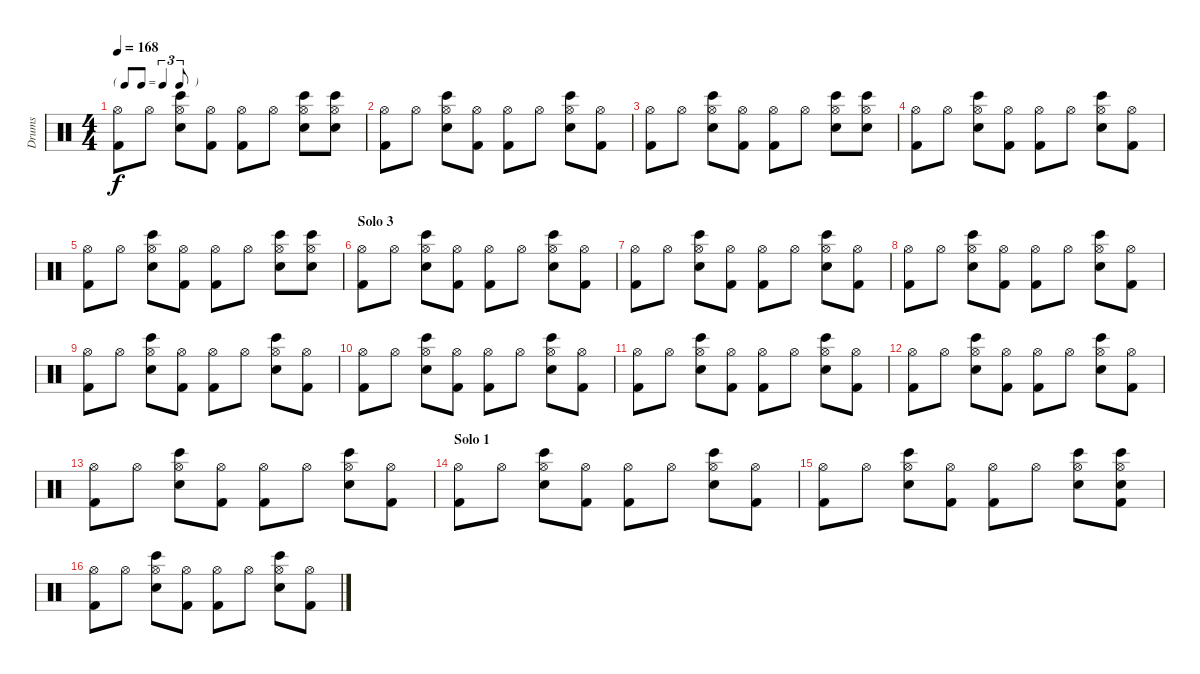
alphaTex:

\track ("Drums" "Drums") {instrument percussion}
\staff {score}
\articulation defaults
\ts (4 4)
\tf triplet8th
\tempo 168
\clef neutral
\ks c
("Hi-Hat (open)" "Kick (hit) 2").8{dy f} "Hi-Hat (open)".8 ("Hi-Hat (open)" "Bongo High (hit)" "Snare (hit) 2").8 ("Hi-Hat (open)" "Kick (hit) 2").8 ("Hi-Hat (open)" "Kick (hit) 2").8 "Hi-Hat (open)".8 ("Hi-Hat (open)" "Bongo High (hit)" "Snare (hit) 2").8 ("Hi-Hat (open)" "Bongo High (hit)" "Snare (hit) 2").8 |
("Hi-Hat (open)" "Kick (hit) 2").8 "Hi-Hat (open)".8 ("Hi-Hat (open)" "Bongo High (hit)" "Snare (hit) 2").8 ("Hi-Hat (open)" "Kick (hit) 2").8 ("Hi-Hat (open)" "Kick (hit) 2").8 "Hi-Hat (open)".8 ("Hi-Hat (open)" "Bongo High (hit)" "Snare (hit) 2").8 ("Hi-Hat (open)" "Kick (hit) 2").8 |
("Hi-Hat (open)" "Kick (hit) 2").8 "Hi-Hat (open)".8 ("Hi-Hat (open)" "Bongo High (hit)" "Snare (hit) 2").8 ("Hi-Hat (open)" "Kick (hit) 2").8 ("Hi-Hat (open)" "Kick (hit) 2").8 "Hi-Hat (open)".8 ("Hi-Hat (open)" "Bongo High (hit)" "Snare (hit) 2").8 ("Hi-Hat (open)" "Bongo High (hit)" "Snare (hit) 2").8 |
("Hi-Hat (open)" "Kick (hit) 2").8 "Hi-Hat (open)".8 ("Hi-Hat (open)" "Bongo High (hit)" "Snare (hit) 2").8 ("Hi-Hat (open)" "Kick (hit) 2").8 ("Hi-Hat (open)" "Kick (hit) 2").8 "Hi-Hat (open)".8 ("Hi-Hat (open)" "Bongo High (hit)" "Snare (hit) 2").8 ("Hi-Hat (open)" "Kick (hit) 2").8 |
("Hi-Hat (open)" "Kick (hit) 2").8 "Hi-Hat (open)".8 ("Hi-Hat (open)" "Bongo High (hit)" "Snare (hit) 2").8 ("Hi-Hat (open)" "Kick (hit) 2").8 ("Hi-Hat (open)" "Kick (hit) 2").8 "Hi-Hat (open)".8 ("Hi-Hat (open)" "Bongo High (hit)" "Snare (hit) 2").8 ("Hi-Hat (open)" "Bongo High (hit)" "Snare (hit) 2").8 |
\section ("" "Solo 3")
("Hi-Hat (open)" "Kick (hit) 2").8 "Hi-Hat (open)".8 ("Hi-Hat (open)" "Bongo High (hit)" "Snare (hit) 2").8 ("Hi-Hat (open)" "Kick (hit) 2").8 ("Hi-Hat (open)" "Kick (hit) 2").8 "Hi-Hat (open)".8 ("Hi-Hat (open)" "Bongo High (hit)" "Snare (hit) 2").8 ("Hi-Hat (open)" "Kick (hit) 2").8 |
("Hi-Hat (open)" "Kick (hit) 2").8 "Hi-Hat (open)".8 ("Hi-Hat (open)" "Bongo High (hit)" "Snare (hit) 2").8 ("Hi-Hat (open)" "Kick (hit) 2").8 ("Hi-Hat (open)" "Kick (hit) 2").8 "Hi-Hat (open)".8 ("Hi-Hat (open)" "Bongo High (hit)" "Snare (hit) 2").8 ("Hi-Hat (open)" "Kick (hit) 2").8 |
("Hi-Hat (open)" "Kick (hit) 2").8 "Hi-Hat (open)".8 ("Hi-Hat (open)" "Bongo High (hit)" "Snare (hit) 2").8 ("Hi-Hat (open)" "Kick (hit) 2").8 ("Hi-Hat (open)" "Kick (hit) 2").8 "Hi-Hat (open)".8 ("Hi-Hat (open)" "Bongo High (hit)" "Snare (hit) 2").8 ("Hi-Hat (open)" "Kick (hit) 2").8 |
("Hi-Hat (open)" "Kick (hit) 2").8 "Hi-Hat (open)".8 ("Hi-Hat (open)" "Bongo High (hit)" "Snare (hit) 2").8 ("Hi-Hat (open)" "Kick (hit) 2").8 ("Hi-Hat (open)" "Kick (hit) 2").8 "Hi-Hat (open)".8 ("Hi-Hat (open)" "Bongo High (hit)" "Snare (hit) 2").8 ("Hi-Hat (open)" "Kick (hit) 2").8 |
("Hi-Hat (open)" "Kick (hit) 2").8 "Hi-Hat (open)".8 ("Hi-Hat (open)" "Bongo High (hit)" "Snare (hit) 2").8 ("Hi-Hat (open)" "Kick (hit) 2").8 ("Hi-Hat (open)" "Kick (hit) 2").8 "Hi-Hat (open)".8 ("Hi-Hat (open)" "Bongo High (hit)" "Snare (hit) 2").8 ("Hi-Hat (open)" "Kick (hit) 2").8 |
("Hi-Hat (open)" "Kick (hit) 2").8 "Hi-Hat (open)".8 ("Hi-Hat (open)" "Bongo High (hit)" "Snare (hit) 2").8 ("Hi-Hat (open)" "Kick (hit) 2").8 ("Hi-Hat (open)" "Kick (hit) 2").8 "Hi-Hat (open)".8 ("Hi-Hat (open)" "Bongo High (hit)" "Snare (hit) 2").8 ("Hi-Hat (open)" "Kick (hit) 2").8 |
("Hi-Hat (open)" "Kick (hit) 2").8 "Hi-Hat (open)".8 ("Hi-Hat (open)" "Bongo High (hit)" "Snare (hit) 2").8 ("Hi-Hat (open)" "Kick (hit) 2").8 ("Hi-Hat (open)" "Kick (hit) 2").8 "Hi-Hat (open)".8 ("Hi-Hat (open)" "Bongo High (hit)" "Snare (hit) 2").8 ("Hi-Hat (open)" "Kick (hit) 2").8 |
("Hi-Hat (open)" "Kick (hit) 2").8 "Hi-Hat (open)".8 ("Hi-Hat (open)" "Bongo High (hit)" "Snare (hit) 2").8 ("Hi-Hat (open)" "Kick (hit) 2").8 ("Hi-Hat (open)" "Kick (hit) 2").8 "Hi-Hat (open)".8 ("Hi-Hat (open)" "Bongo High (hit)" "Snare (hit) 2").8 ("Hi-Hat (open)" "Kick (hit) 2").8 |
\section ("" "Solo 1")
("Hi-Hat (open)" "Kick (hit) 2").8 "Hi-Hat (open)".8 ("Hi-Hat (open)" "Bongo High (hit)" "Snare (hit) 2").8 ("Hi-Hat (open)" "Kick (hit) 2").8 ("Hi-Hat (open)" "Kick (hit) 2").8 "Hi-Hat (open)".8 ("Hi-Hat (open)" "Bongo High (hit)" "Snare (hit) 2").8 ("Hi-Hat (open)" "Kick (hit) 2").8 |
("Hi-Hat (open)" "Kick (hit) 2").8 "Hi-Hat (open)".8 ("Hi-Hat (open)" "Bongo High (hit)" "Snare (hit) 2").8 ("Hi-Hat (open)" "Kick (hit) 2").8 ("Hi-Hat (open)" "Kick (hit) 2").8 "Hi-Hat (open)".8 ("Hi-Hat (open)" "Bongo High (hit)" "Snare (hit) 2").8 ("Hi-Hat (open)" "Bongo High (hit)" "Snare (hit) 2" "Kick (hit) 2").8 |
("Hi-Hat (open)" "Kick (hit) 2").8 "Hi-Hat (open)".8 ("Hi-Hat (open)" "Bongo High (hit)" "Snare (hit) 2").8 ("Hi-Hat (open)" "Kick (hit) 2").8 ("Hi-Hat (open)" "Kick (hit) 2").8 "Hi-Hat (open)".8 ("Hi-Hat (open)" "Bongo High (hit)" "Snare (hit) 2").8 ("Hi-Hat (open)" "Kick (hit) 2").8
